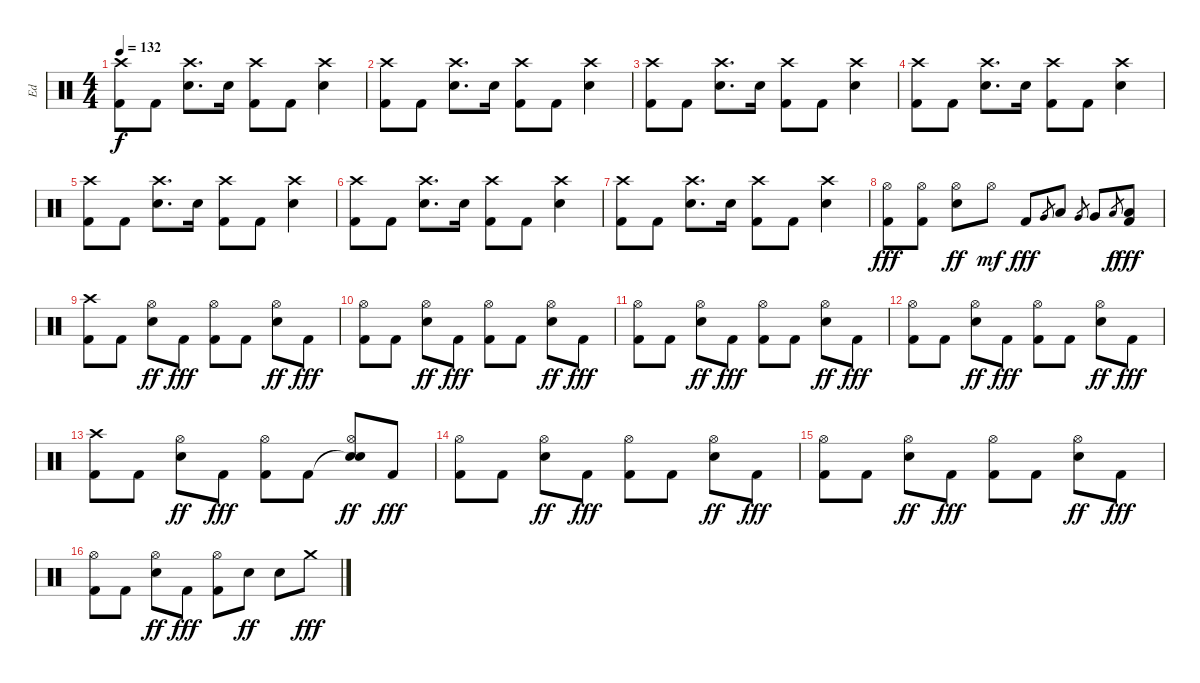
\track ("Ed" "Ed") {instrument percussion}
\staff {score}
\articulation defaults
\ts (4 4)
\tempo 132
\clef neutral
\ks c
("Crash high (hit)" "Kick (hit) 2").8{dy f} "Kick (hit) 2".8 ("Crash high (hit)" "Snare (hit) 2").8{d} "Snare (hit) 2".16 ("Crash high (hit)" "Kick (hit) 2").8 "Kick (hit) 2".8 ("Crash high (hit)" "Snare (hit) 2").4 |
("Crash high (hit)" "Kick (hit) 2").8 "Kick (hit) 2".8 ("Crash high (hit)" "Snare (hit) 2").8{d} "Snare (hit) 2".16 ("Crash high (hit)" "Kick (hit) 2").8 "Kick (hit) 2".8 ("Crash high (hit)" "Snare (hit) 2").4 |
("Crash high (hit)" "Kick (hit) 2").8 "Kick (hit) 2".8 ("Crash high (hit)" "Snare (hit) 2").8{d} "Snare (hit) 2".16 ("Crash high (hit)" "Kick (hit) 2").8 "Kick (hit) 2".8 ("Crash high (hit)" "Snare (hit) 2").4 |
("Crash high (hit)" "Kick (hit) 2").8 "Kick (hit) 2".8 ("Crash high (hit)" "Snare (hit) 2").8{d} "Snare (hit) 2".16 ("Crash high (hit)" "Kick (hit) 2").8 "Kick (hit) 2".8 ("Crash high (hit)" "Snare (hit) 2").4 |
("Crash high (hit)" "Kick (hit) 2").8 "Kick (hit) 2".8 ("Crash high (hit)" "Snare (hit) 2").8{d} "Snare (hit) 2".16 ("Crash high (hit)" "Kick (hit) 2").8 "Kick (hit) 2".8 ("Crash high (hit)" "Snare (hit) 2").4 |
("Crash high (hit)" "Kick (hit) 2").8 "Kick (hit) 2".8 ("Crash high (hit)" "Snare (hit) 2").8{d} "Snare (hit) 2".16 ("Crash high (hit)" "Kick (hit) 2").8 "Kick (hit) 2".8 ("Crash high (hit)" "Snare (hit) 2").4 |
("Crash high (hit)" "Kick (hit) 2").8 "Kick (hit) 2".8 ("Crash high (hit)" "Snare (hit) 2").8{d} "Snare (hit) 2".16 ("Crash high (hit)" "Kick (hit) 2").8 "Kick (hit) 2".8 ("Crash high (hit)" "Snare (hit) 2").4 |
("Hi-Hat (open)" "Kick (hit) 2").8{dy fff} ("Hi-Hat (open)" "Kick (hit) 2").8 ("Hi-Hat (open)" "Electric Snare (hit)").8{dy ff} "Hi-Hat (open)".8{dy mf} "Kick (hit) 2".8{dy fff} "Very Low Tom (hit)".8{gr} "Low Tom (hit)".8 "Very Low Tom (hit)".8{gr} "Very Low Tom (hit)".8 "Low Floor Tom (hit)".8{gr dy f} ("Low Floor Tom (hit)" "Kick (hit) 2").8{dy fff} |
("Crash high (hit)" "Kick (hit) 2").8 "Kick (hit) 2".8 ("Hi-Hat (open)" "Electric Snare (hit)").8{dy ff} "Kick (hit) 2".8{dy fff} ("Hi-Hat (open)" "Kick (hit) 2").8 "Kick (hit) 2".8 ("Hi-Hat (open)" "Electric Snare (hit)").8{dy ff} "Kick (hit) 2".8{dy fff} |
("Hi-Hat (open)" "Kick (hit) 2").8 "Kick (hit) 2".8 ("Hi-Hat (open)" "Electric Snare (hit)").8{dy ff} "Kick (hit) 2".8{dy fff} ("Hi-Hat (open)" "Kick (hit) 2").8 "Kick (hit) 2".8 ("Hi-Hat (open)" "Electric Snare (hit)").8{dy ff} "Kick (hit) 2".8{dy fff} |
("Hi-Hat (open)" "Kick (hit) 2").8 "Kick (hit) 2".8 ("Hi-Hat (open)" "Electric Snare (hit)").8{dy ff} "Kick (hit) 2".8{dy fff} ("Hi-Hat (open)" "Kick (hit) 2").8 "Kick (hit) 2".8 ("Hi-Hat (open)" "Electric Snare (hit)").8{dy ff} "Kick (hit) 2".8{dy fff} |
("Hi-Hat (open)" "Kick (hit) 2").8 "Kick (hit) 2".8 ("Hi-Hat (open)" "Electric Snare (hit)").8{dy ff} "Kick (hit) 2".8{dy fff} ("Hi-Hat (open)" "Kick (hit) 2").8 "Kick (hit) 2".8 ("Hi-Hat (open)" "Electric Snare (hit)").8{dy ff} "Kick (hit) 2".8{dy fff} |
("Crash high (hit)" "Kick (hit) 2").8 "Kick (hit) 2".8 ("Hi-Hat (open)" "Electric Snare (hit)").8{dy ff} "Kick (hit) 2".8{dy fff} ("Hi-Hat (open)" "Kick (hit) 2").8 "Kick (hit) 2".8 ("Snare (hit)"{t} "Hi-Hat (open)" "Electric Snare (hit)").8{dy ff} "Kick (hit) 2".8{dy fff} |
("Hi-Hat (open)" "Kick (hit) 2").8 "Kick (hit) 2".8 ("Hi-Hat (open)" "Electric Snare (hit)").8{dy ff} "Kick (hit) 2".8{dy fff} ("Hi-Hat (open)" "Kick (hit) 2").8 "Kick (hit) 2".8 ("Hi-Hat (open)" "Electric Snare (hit)").8{dy ff} "Kick (hit) 2".8{dy fff} |
("Hi-Hat (open)" "Kick (hit) 2").8 "Kick (hit) 2".8 ("Hi-Hat (open)" "Electric Snare (hit)").8{dy ff} "Kick (hit) 2".8{dy fff} ("Hi-Hat (open)" "Kick (hit) 2").8 "Kick (hit) 2".8 ("Hi-Hat (open)" "Electric Snare (hit)").8{dy ff} "Kick (hit) 2".8{dy fff} |
("Hi-Hat (open)" "Kick (hit) 2").8 "Kick (hit) 2".8 ("Hi-Hat (open)" "Electric Snare (hit)").8{dy ff} "Kick (hit) 2".8{dy fff} ("Hi-Hat (open)" "Kick (hit) 2").8 "Electric Snare (hit)".8{dy ff} "Electric Snare (hit)".8 "Crash medium (hit)".8{dy fff}
